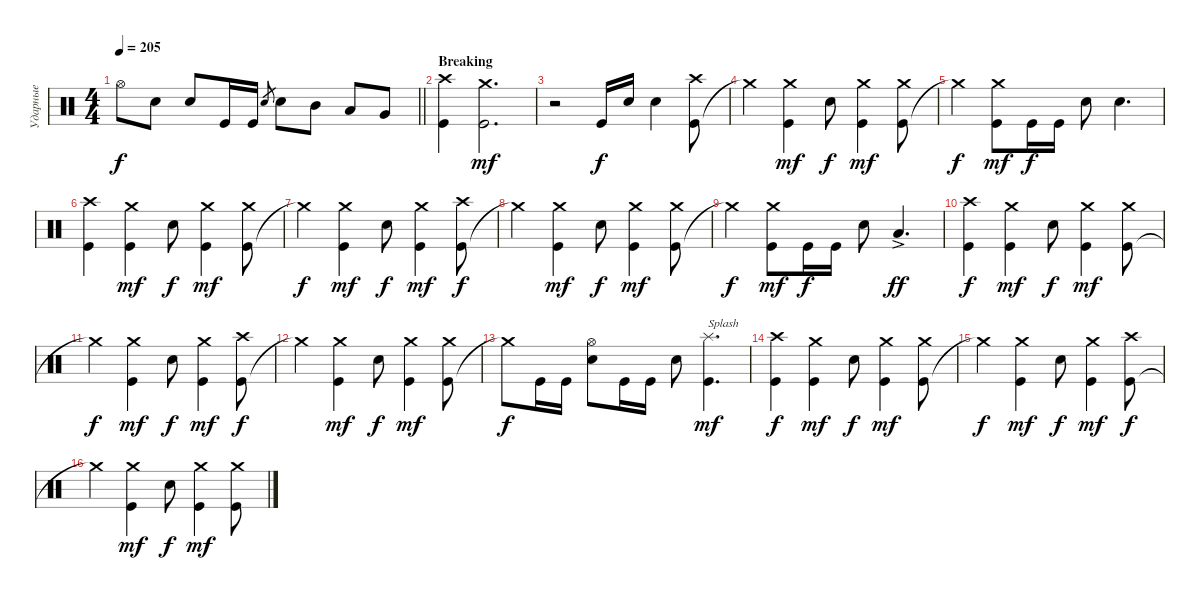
\track ("Ударные" "Ударные") {instrument percussion}
\staff {score}
\articulation defaults
\ts (4 4)
\tempo 205
\clef neutral
\barLineRight lightlight
\ks aminor "Hi-Hat (open)".8{dy f} "Snare (hit) 2".8 "Snare (hit) 2".8 "Kick (hit)".16 "Kick (hit)".16 "Snare (hit) 2".8{gr} "Snare (hit) 2".8 "Mid Tom (hit)".8 "Low Tom (hit)".8 "Very Low Tom (hit)".8
|
\section ("" "Breaking")
("Kick (hit)" "Crash high (hit)").4 ("Kick (hit)" "Crash medium (hit)").2{d dy mf} |
r.2 "Kick (hit)".16{dy f} "Snare (hit) 2".16 "Snare (hit) 2".4 ("Kick (hit)" "Crash high (hit)").8 |
"Crash medium (hit)"{t}.4 ("Kick (hit)" "Crash medium (hit)").4{dy mf} "Snare (hit) 2".8{dy f} ("Kick (hit)" "Crash medium (hit)").4{dy mf} ("Kick (hit)" "Crash medium (hit)").8 |
"Crash medium (hit)"{t}.4{dy f} ("Kick (hit)" "Crash medium (hit)").8{dy mf} "Kick (hit)".16{dy f} "Kick (hit)".16 "Snare (hit) 2".8 "Snare (hit) 2".4{d} |
("Kick (hit)" "Crash high (hit)").4 ("Kick (hit)" "Crash medium (hit)").4{dy mf} "Snare (hit) 2".8{dy f} ("Kick (hit)" "Crash medium (hit)").4{dy mf} ("Kick (hit)" "Crash medium (hit)").8 |
"Crash medium (hit)"{t}.4{dy f} ("Kick (hit)" "Crash medium (hit)").4{dy mf} "Snare (hit) 2".8{dy f} ("Kick (hit)" "Crash medium (hit)").4{dy mf} ("Kick (hit)" "Crash high (hit)").8{dy f} |
"Crash medium (hit)"{t}.4 ("Kick (hit)" "Crash medium (hit)").4{dy mf} "Snare (hit) 2".8{dy f} ("Kick (hit)" "Crash medium (hit)").4{dy mf} ("Kick (hit)" "Crash medium (hit)").8 |
"Crash medium (hit)"{t}.4{dy f} ("Kick (hit)" "Crash medium (hit)").8{dy mf} "Kick (hit)".16{dy f} "Kick (hit)".16 "Snare (hit) 2".8 "Low Tom (hit)"{ac}.4{d dy ff} |
("Kick (hit)" "Crash high (hit)").4{dy f} ("Kick (hit)" "Crash medium (hit)").4{dy mf} "Snare (hit) 2".8{dy f} ("Kick (hit)" "Crash medium (hit)").4{dy mf} ("Kick (hit)" "Crash medium (hit)").8 |
"Crash medium (hit)"{t}.4{dy f} ("Kick (hit)" "Crash medium (hit)").4{dy mf} "Snare (hit) 2".8{dy f} ("Kick (hit)" "Crash medium (hit)").4{dy mf} ("Kick (hit)" "Crash high (hit)").8{dy f} |
"Crash medium (hit)"{t}.4 ("Kick (hit)" "Crash medium (hit)").4{dy mf} "Snare (hit) 2".8{dy f} ("Kick (hit)" "Crash medium (hit)").4{dy mf} ("Kick (hit)" "Crash medium (hit)").8 |
"Crash medium (hit)"{t}.8{dy f} "Kick (hit)".16 "Kick (hit)".16 ("Snare (hit) 2" "Hi-Hat (open)").8 "Kick (hit)".16 "Kick (hit)".16 "Snare (hit) 2".8 ("Kick (hit)" "Splash (hit)").4{d txt "Splash" dy mf} |
("Kick (hit)" "Crash high (hit)").4{dy f} ("Kick (hit)" "Crash medium (hit)").4{dy mf} "Snare (hit) 2".8{dy f} ("Kick (hit)" "Crash medium (hit)").4{dy mf} ("Kick (hit)" "Crash medium (hit)").8 |
"Crash medium (hit)"{t}.4{dy f} ("Kick (hit)" "Crash medium (hit)").4{dy mf} "Snare (hit) 2".8{dy f} ("Kick (hit)" "Crash medium (hit)").4{dy mf} ("Kick (hit)" "Crash high (hit)").8{dy f} |
"Crash medium (hit)"{t}.4 ("Kick (hit)" "Crash medium (hit)").4{dy mf} "Snare (hit) 2".8{dy f} ("Kick (hit)" "Crash medium (hit)").4{dy mf} ("Kick (hit)" "Crash medium (hit)").8
